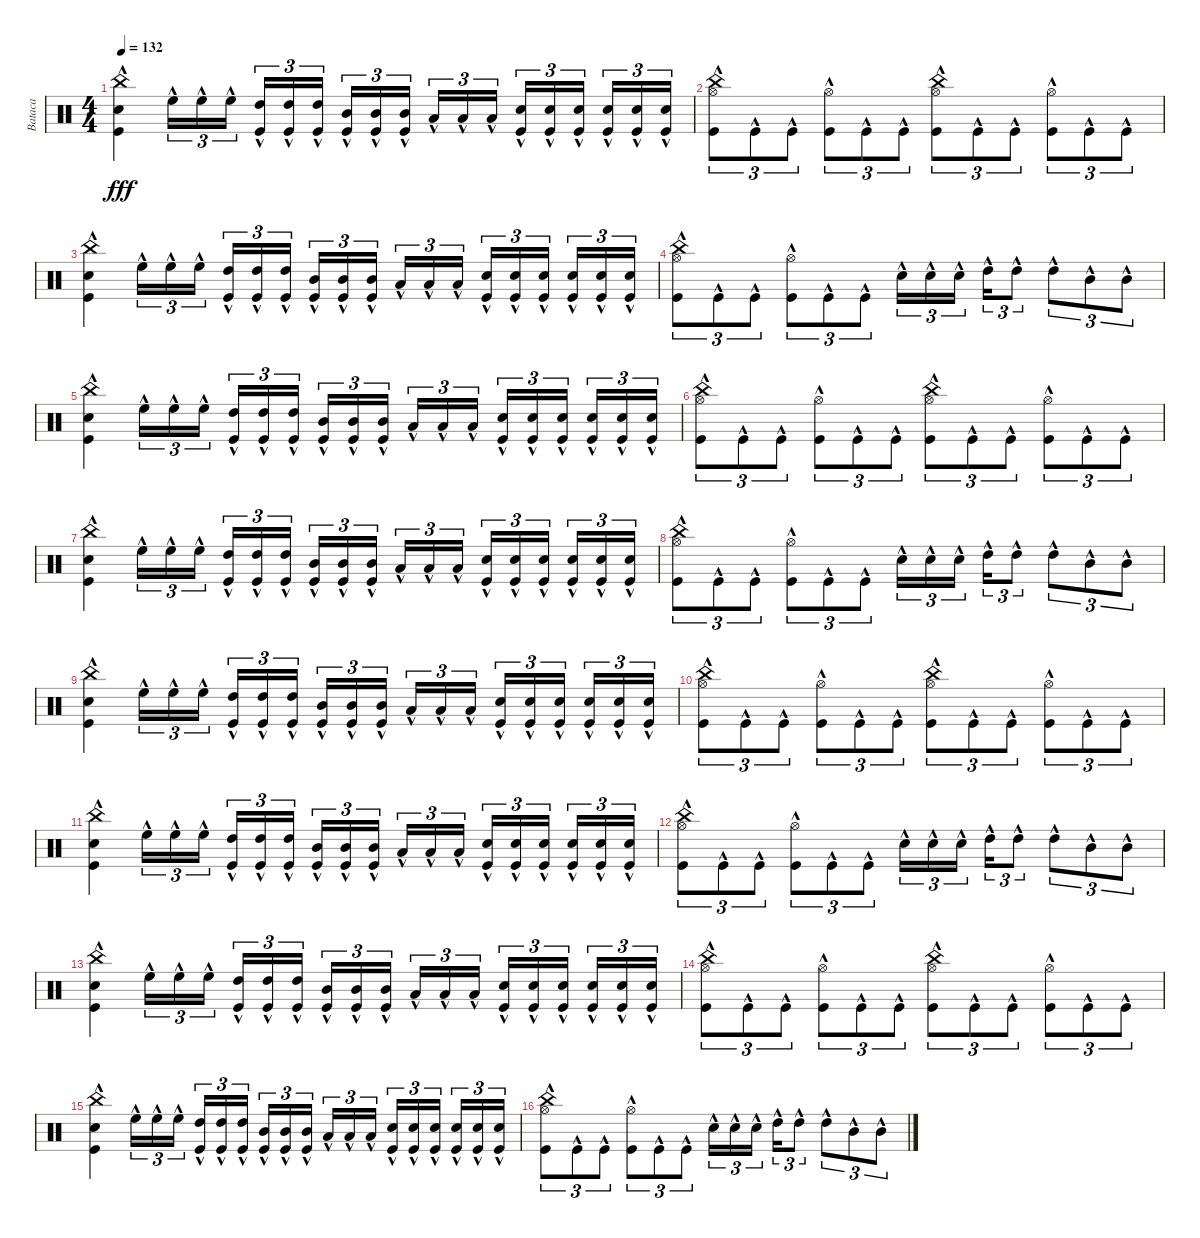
\track ("Bataca" "Bataca") {instrument percussion}
\staff {score}
\articulation defaults
\ts (4 4)
\tempo 132
\clef neutral
\ks c
("China (hit)"{hac} "Electric Snare (hit)"{hac} "Kick (hit)"{hac}).4{dy fff} "High Floor Tom (hit)"{hac}.16{tu (3 2)} "High Floor Tom (hit)"{hac}.16{tu (3 2)} "High Floor Tom (hit)"{hac}.16{tu (3 2) beam splitsecondary} ("High Tom (hit)"{hac} "Kick (hit)"{hac}).16{tu (3 2)} ("High Tom (hit)"{hac} "Kick (hit)"{hac}).16{tu (3 2)} ("High Tom (hit)"{hac} "Kick (hit)"{hac}).16{tu (3 2)} ("Mid Tom (hit)"{hac} "Kick (hit)"{hac}).16{tu (3 2)} ("Mid Tom (hit)"{hac} "Kick (hit)"{hac}).16{tu (3 2)} ("Mid Tom (hit)"{hac} "Kick (hit)"{hac}).16{tu (3 2) beam splitsecondary} "Low Tom (hit)"{hac}.16{tu (3 2)} "Low Tom (hit)"{hac}.16{tu (3 2)} "Low Tom (hit)"{hac}.16{tu (3 2)} ("Electric Snare (hit)"{hac} "Kick (hit)"{hac}).16{tu (3 2)} ("Electric Snare (hit)"{hac} "Kick (hit)"{hac}).16{tu (3 2)} ("Electric Snare (hit)"{hac} "Kick (hit)"{hac}).16{tu (3 2) beam splitsecondary} ("Electric Snare (hit)"{hac} "Kick (hit)"{hac}).16{tu (3 2)} ("Electric Snare (hit)"{hac} "Kick (hit)"{hac}).16{tu (3 2)} ("Electric Snare (hit)"{hac} "Kick (hit)"{hac}).16{tu (3 2)} |
("China (hit)"{hac} "Hi-Hat (open)"{hac} "Kick (hit)"{hac}).8{tu (3 2) volume 9} "Kick (hit)"{hac}.8{tu (3 2)} "Kick (hit)"{hac}.8{tu (3 2)} ("Hi-Hat (open)"{hac} "Kick (hit)"{hac}).8{tu (3 2)} "Kick (hit)"{hac}.8{tu (3 2)} "Kick (hit)"{hac}.8{tu (3 2)} ("China (hit)"{hac} "Hi-Hat (open)"{hac} "Kick (hit)"{hac}).8{tu (3 2)} "Kick (hit)"{hac}.8{tu (3 2)} "Kick (hit)"{hac}.8{tu (3 2)} ("Hi-Hat (open)"{hac} "Kick (hit)"{hac}).8{tu (3 2)} "Kick (hit)"{hac}.8{tu (3 2)} "Kick (hit)"{hac}.8{tu (3 2)} |
("China (hit)"{hac} "Electric Snare (hit)"{hac} "Kick (hit)"{hac}).4 "High Floor Tom (hit)"{hac}.16{tu (3 2)} "High Floor Tom (hit)"{hac}.16{tu (3 2)} "High Floor Tom (hit)"{hac}.16{tu (3 2) beam splitsecondary} ("High Tom (hit)"{hac} "Kick (hit)"{hac}).16{tu (3 2)} ("High Tom (hit)"{hac} "Kick (hit)"{hac}).16{tu (3 2)} ("High Tom (hit)"{hac} "Kick (hit)"{hac}).16{tu (3 2)} ("Mid Tom (hit)"{hac} "Kick (hit)"{hac}).16{tu (3 2)} ("Mid Tom (hit)"{hac} "Kick (hit)"{hac}).16{tu (3 2)} ("Mid Tom (hit)"{hac} "Kick (hit)"{hac}).16{tu (3 2) beam splitsecondary} "Low Tom (hit)"{hac}.16{tu (3 2)} "Low Tom (hit)"{hac}.16{tu (3 2)} "Low Tom (hit)"{hac}.16{tu (3 2)} ("Electric Snare (hit)"{hac} "Kick (hit)"{hac}).16{tu (3 2)} ("Electric Snare (hit)"{hac} "Kick (hit)"{hac}).16{tu (3 2)} ("Electric Snare (hit)"{hac} "Kick (hit)"{hac}).16{tu (3 2) beam splitsecondary} ("Electric Snare (hit)"{hac} "Kick (hit)"{hac}).16{tu (3 2)} ("Electric Snare (hit)"{hac} "Kick (hit)"{hac}).16{tu (3 2)} ("Electric Snare (hit)"{hac} "Kick (hit)"{hac}).16{tu (3 2)} |
("China (hit)"{hac} "Hi-Hat (open)"{hac} "Kick (hit)"{hac}).8{tu (3 2)} "Kick (hit)"{hac}.8{tu (3 2)} "Kick (hit)"{hac}.8{tu (3 2)} ("Hi-Hat (open)"{hac} "Kick (hit)"{hac}).8{tu (3 2)} "Kick (hit)"{hac}.8{tu (3 2)} "Kick (hit)"{hac}.8{tu (3 2)} "Electric Snare (hit)"{hac}.16{tu (3 2)} "Electric Snare (hit)"{hac}.16{tu (3 2)} "Electric Snare (hit)"{hac}.16{tu (3 2) beam splitsecondary} "High Tom (hit)"{hac}.16{tu (3 2)} "High Tom (hit)"{hac}.8{tu (3 2)} "High Tom (hit)"{hac}.8{tu (3 2)} "Mid Tom (hit)"{hac}.8{tu (3 2)} "Mid Tom (hit)"{hac}.8{tu (3 2)} |
("China (hit)"{hac} "Electric Snare (hit)"{hac} "Kick (hit)"{hac}).4{volume 7} "High Floor Tom (hit)"{hac}.16{tu (3 2)} "High Floor Tom (hit)"{hac}.16{tu (3 2)} "High Floor Tom (hit)"{hac}.16{tu (3 2) beam splitsecondary} ("High Tom (hit)"{hac} "Kick (hit)"{hac}).16{tu (3 2)} ("High Tom (hit)"{hac} "Kick (hit)"{hac}).16{tu (3 2)} ("High Tom (hit)"{hac} "Kick (hit)"{hac}).16{tu (3 2)} ("Mid Tom (hit)"{hac} "Kick (hit)"{hac}).16{tu (3 2)} ("Mid Tom (hit)"{hac} "Kick (hit)"{hac}).16{tu (3 2)} ("Mid Tom (hit)"{hac} "Kick (hit)"{hac}).16{tu (3 2) beam splitsecondary} "Low Tom (hit)"{hac}.16{tu (3 2)} "Low Tom (hit)"{hac}.16{tu (3 2)} "Low Tom (hit)"{hac}.16{tu (3 2)} ("Electric Snare (hit)"{hac} "Kick (hit)"{hac}).16{tu (3 2)} ("Electric Snare (hit)"{hac} "Kick (hit)"{hac}).16{tu (3 2)} ("Electric Snare (hit)"{hac} "Kick (hit)"{hac}).16{tu (3 2) beam splitsecondary} ("Electric Snare (hit)"{hac} "Kick (hit)"{hac}).16{tu (3 2)} ("Electric Snare (hit)"{hac} "Kick (hit)"{hac}).16{tu (3 2)} ("Electric Snare (hit)"{hac} "Kick (hit)"{hac}).16{tu (3 2)} |
("China (hit)"{hac} "Hi-Hat (open)"{hac} "Kick (hit)"{hac}).8{tu (3 2)} "Kick (hit)"{hac}.8{tu (3 2)} "Kick (hit)"{hac}.8{tu (3 2)} ("Hi-Hat (open)"{hac} "Kick (hit)"{hac}).8{tu (3 2)} "Kick (hit)"{hac}.8{tu (3 2)} "Kick (hit)"{hac}.8{tu (3 2)} ("China (hit)"{hac} "Hi-Hat (open)"{hac} "Kick (hit)"{hac}).8{tu (3 2)} "Kick (hit)"{hac}.8{tu (3 2)} "Kick (hit)"{hac}.8{tu (3 2)} ("Hi-Hat (open)"{hac} "Kick (hit)"{hac}).8{tu (3 2)} "Kick (hit)"{hac}.8{tu (3 2)} "Kick (hit)"{hac}.8{tu (3 2)} |
("China (hit)"{hac} "Electric Snare (hit)"{hac} "Kick (hit)"{hac}).4{volume 5} "High Floor Tom (hit)"{hac}.16{tu (3 2)} "High Floor Tom (hit)"{hac}.16{tu (3 2)} "High Floor Tom (hit)"{hac}.16{tu (3 2) beam splitsecondary} ("High Tom (hit)"{hac} "Kick (hit)"{hac}).16{tu (3 2)} ("High Tom (hit)"{hac} "Kick (hit)"{hac}).16{tu (3 2)} ("High Tom (hit)"{hac} "Kick (hit)"{hac}).16{tu (3 2)} ("Mid Tom (hit)"{hac} "Kick (hit)"{hac}).16{tu (3 2)} ("Mid Tom (hit)"{hac} "Kick (hit)"{hac}).16{tu (3 2)} ("Mid Tom (hit)"{hac} "Kick (hit)"{hac}).16{tu (3 2) beam splitsecondary} "Low Tom (hit)"{hac}.16{tu (3 2)} "Low Tom (hit)"{hac}.16{tu (3 2)} "Low Tom (hit)"{hac}.16{tu (3 2)} ("Electric Snare (hit)"{hac} "Kick (hit)"{hac}).16{tu (3 2)} ("Electric Snare (hit)"{hac} "Kick (hit)"{hac}).16{tu (3 2)} ("Electric Snare (hit)"{hac} "Kick (hit)"{hac}).16{tu (3 2) beam splitsecondary} ("Electric Snare (hit)"{hac} "Kick (hit)"{hac}).16{tu (3 2)} ("Electric Snare (hit)"{hac} "Kick (hit)"{hac}).16{tu (3 2)} ("Electric Snare (hit)"{hac} "Kick (hit)"{hac}).16{tu (3 2)} |
("China (hit)"{hac} "Hi-Hat (open)"{hac} "Kick (hit)"{hac}).8{tu (3 2)} "Kick (hit)"{hac}.8{tu (3 2)} "Kick (hit)"{hac}.8{tu (3 2)} ("Hi-Hat (open)"{hac} "Kick (hit)"{hac}).8{tu (3 2)} "Kick (hit)"{hac}.8{tu (3 2)} "Kick (hit)"{hac}.8{tu (3 2)} "Electric Snare (hit)"{hac}.16{tu (3 2)} "Electric Snare (hit)"{hac}.16{tu (3 2)} "Electric Snare (hit)"{hac}.16{tu (3 2) beam splitsecondary} "High Tom (hit)"{hac}.16{tu (3 2)} "High Tom (hit)"{hac}.8{tu (3 2)} "High Tom (hit)"{hac}.8{tu (3 2)} "Mid Tom (hit)"{hac}.8{tu (3 2)} "Mid Tom (hit)"{hac}.8{tu (3 2)} |
("China (hit)"{hac} "Electric Snare (hit)"{hac} "Kick (hit)"{hac}).4{volume 3} "High Floor Tom (hit)"{hac}.16{tu (3 2)} "High Floor Tom (hit)"{hac}.16{tu (3 2)} "High Floor Tom (hit)"{hac}.16{tu (3 2) beam splitsecondary} ("High Tom (hit)"{hac} "Kick (hit)"{hac}).16{tu (3 2)} ("High Tom (hit)"{hac} "Kick (hit)"{hac}).16{tu (3 2)} ("High Tom (hit)"{hac} "Kick (hit)"{hac}).16{tu (3 2)} ("Mid Tom (hit)"{hac} "Kick (hit)"{hac}).16{tu (3 2)} ("Mid Tom (hit)"{hac} "Kick (hit)"{hac}).16{tu (3 2)} ("Mid Tom (hit)"{hac} "Kick (hit)"{hac}).16{tu (3 2) beam splitsecondary} "Low Tom (hit)"{hac}.16{tu (3 2)} "Low Tom (hit)"{hac}.16{tu (3 2)} "Low Tom (hit)"{hac}.16{tu (3 2)} ("Electric Snare (hit)"{hac} "Kick (hit)"{hac}).16{tu (3 2)} ("Electric Snare (hit)"{hac} "Kick (hit)"{hac}).16{tu (3 2)} ("Electric Snare (hit)"{hac} "Kick (hit)"{hac}).16{tu (3 2) beam splitsecondary} ("Electric Snare (hit)"{hac} "Kick (hit)"{hac}).16{tu (3 2)} ("Electric Snare (hit)"{hac} "Kick (hit)"{hac}).16{tu (3 2)} ("Electric Snare (hit)"{hac} "Kick (hit)"{hac}).16{tu (3 2)} |
("China (hit)"{hac} "Hi-Hat (open)"{hac} "Kick (hit)"{hac}).8{tu (3 2)} "Kick (hit)"{hac}.8{tu (3 2)} "Kick (hit)"{hac}.8{tu (3 2)} ("Hi-Hat (open)"{hac} "Kick (hit)"{hac}).8{tu (3 2)} "Kick (hit)"{hac}.8{tu (3 2)} "Kick (hit)"{hac}.8{tu (3 2)} ("China (hit)"{hac} "Hi-Hat (open)"{hac} "Kick (hit)"{hac}).8{tu (3 2)} "Kick (hit)"{hac}.8{tu (3 2)} "Kick (hit)"{hac}.8{tu (3 2)} ("Hi-Hat (open)"{hac} "Kick (hit)"{hac}).8{tu (3 2)} "Kick (hit)"{hac}.8{tu (3 2)} "Kick (hit)"{hac}.8{tu (3 2)} |
("China (hit)"{hac} "Electric Snare (hit)"{hac} "Kick (hit)"{hac}).4{volume 0} "High Floor Tom (hit)"{hac}.16{tu (3 2)} "High Floor Tom (hit)"{hac}.16{tu (3 2)} "High Floor Tom (hit)"{hac}.16{tu (3 2) beam splitsecondary} ("High Tom (hit)"{hac} "Kick (hit)"{hac}).16{tu (3 2)} ("High Tom (hit)"{hac} "Kick (hit)"{hac}).16{tu (3 2)} ("High Tom (hit)"{hac} "Kick (hit)"{hac}).16{tu (3 2)} ("Mid Tom (hit)"{hac} "Kick (hit)"{hac}).16{tu (3 2)} ("Mid Tom (hit)"{hac} "Kick (hit)"{hac}).16{tu (3 2)} ("Mid Tom (hit)"{hac} "Kick (hit)"{hac}).16{tu (3 2) beam splitsecondary} "Low Tom (hit)"{hac}.16{tu (3 2)} "Low Tom (hit)"{hac}.16{tu (3 2)} "Low Tom (hit)"{hac}.16{tu (3 2)} ("Electric Snare (hit)"{hac} "Kick (hit)"{hac}).16{tu (3 2)} ("Electric Snare (hit)"{hac} "Kick (hit)"{hac}).16{tu (3 2)} ("Electric Snare (hit)"{hac} "Kick (hit)"{hac}).16{tu (3 2) beam splitsecondary} ("Electric Snare (hit)"{hac} "Kick (hit)"{hac}).16{tu (3 2)} ("Electric Snare (hit)"{hac} "Kick (hit)"{hac}).16{tu (3 2)} ("Electric Snare (hit)"{hac} "Kick (hit)"{hac}).16{tu (3 2)} |
("China (hit)"{hac} "Hi-Hat (open)"{hac} "Kick (hit)"{hac}).8{tu (3 2)} "Kick (hit)"{hac}.8{tu (3 2)} "Kick (hit)"{hac}.8{tu (3 2)} ("Hi-Hat (open)"{hac} "Kick (hit)"{hac}).8{tu (3 2)} "Kick (hit)"{hac}.8{tu (3 2)} "Kick (hit)"{hac}.8{tu (3 2)} "Electric Snare (hit)"{hac}.16{tu (3 2)} "Electric Snare (hit)"{hac}.16{tu (3 2)} "Electric Snare (hit)"{hac}.16{tu (3 2) beam splitsecondary} "High Tom (hit)"{hac}.16{tu (3 2)} "High Tom (hit)"{hac}.8{tu (3 2)} "High Tom (hit)"{hac}.8{tu (3 2)} "Mid Tom (hit)"{hac}.8{tu (3 2)} "Mid Tom (hit)"{hac}.8{tu (3 2)} |
("China (hit)"{hac} "Electric Snare (hit)"{hac} "Kick (hit)"{hac}).4 "High Floor Tom (hit)"{hac}.16{tu (3 2)} "High Floor Tom (hit)"{hac}.16{tu (3 2)} "High Floor Tom (hit)"{hac}.16{tu (3 2) beam splitsecondary} ("High Tom (hit)"{hac} "Kick (hit)"{hac}).16{tu (3 2)} ("High Tom (hit)"{hac} "Kick (hit)"{hac}).16{tu (3 2)} ("High Tom (hit)"{hac} "Kick (hit)"{hac}).16{tu (3 2)} ("Mid Tom (hit)"{hac} "Kick (hit)"{hac}).16{tu (3 2)} ("Mid Tom (hit)"{hac} "Kick (hit)"{hac}).16{tu (3 2)} ("Mid Tom (hit)"{hac} "Kick (hit)"{hac}).16{tu (3 2) beam splitsecondary} "Low Tom (hit)"{hac}.16{tu (3 2)} "Low Tom (hit)"{hac}.16{tu (3 2)} "Low Tom (hit)"{hac}.16{tu (3 2)} ("Electric Snare (hit)"{hac} "Kick (hit)"{hac}).16{tu (3 2)} ("Electric Snare (hit)"{hac} "Kick (hit)"{hac}).16{tu (3 2)} ("Electric Snare (hit)"{hac} "Kick (hit)"{hac}).16{tu (3 2) beam splitsecondary} ("Electric Snare (hit)"{hac} "Kick (hit)"{hac}).16{tu (3 2)} ("Electric Snare (hit)"{hac} "Kick (hit)"{hac}).16{tu (3 2)} ("Electric Snare (hit)"{hac} "Kick (hit)"{hac}).16{tu (3 2)} |
("China (hit)"{hac} "Hi-Hat (open)"{hac} "Kick (hit)"{hac}).8{tu (3 2)} "Kick (hit)"{hac}.8{tu (3 2)} "Kick (hit)"{hac}.8{tu (3 2)} ("Hi-Hat (open)"{hac} "Kick (hit)"{hac}).8{tu (3 2)} "Kick (hit)"{hac}.8{tu (3 2)} "Kick (hit)"{hac}.8{tu (3 2)} ("China (hit)"{hac} "Hi-Hat (open)"{hac} "Kick (hit)"{hac}).8{tu (3 2)} "Kick (hit)"{hac}.8{tu (3 2)} "Kick (hit)"{hac}.8{tu (3 2)} ("Hi-Hat (open)"{hac} "Kick (hit)"{hac}).8{tu (3 2)} "Kick (hit)"{hac}.8{tu (3 2)} "Kick (hit)"{hac}.8{tu (3 2)} |
("China (hit)"{hac} "Electric Snare (hit)"{hac} "Kick (hit)"{hac}).4 "High Floor Tom (hit)"{hac}.16{tu (3 2)} "High Floor Tom (hit)"{hac}.16{tu (3 2)} "High Floor Tom (hit)"{hac}.16{tu (3 2) beam splitsecondary} ("High Tom (hit)"{hac} "Kick (hit)"{hac}).16{tu (3 2)} ("High Tom (hit)"{hac} "Kick (hit)"{hac}).16{tu (3 2)} ("High Tom (hit)"{hac} "Kick (hit)"{hac}).16{tu (3 2)} ("Mid Tom (hit)"{hac} "Kick (hit)"{hac}).16{tu (3 2)} ("Mid Tom (hit)"{hac} "Kick (hit)"{hac}).16{tu (3 2)} ("Mid Tom (hit)"{hac} "Kick (hit)"{hac}).16{tu (3 2) beam splitsecondary} "Low Tom (hit)"{hac}.16{tu (3 2)} "Low Tom (hit)"{hac}.16{tu (3 2)} "Low Tom (hit)"{hac}.16{tu (3 2)} ("Electric Snare (hit)"{hac} "Kick (hit)"{hac}).16{tu (3 2)} ("Electric Snare (hit)"{hac} "Kick (hit)"{hac}).16{tu (3 2)} ("Electric Snare (hit)"{hac} "Kick (hit)"{hac}).16{tu (3 2) beam splitsecondary} ("Electric Snare (hit)"{hac} "Kick (hit)"{hac}).16{tu (3 2)} ("Electric Snare (hit)"{hac} "Kick (hit)"{hac}).16{tu (3 2)} ("Electric Snare (hit)"{hac} "Kick (hit)"{hac}).16{tu (3 2)} |
("China (hit)"{hac} "Hi-Hat (open)"{hac} "Kick (hit)"{hac}).8{tu (3 2)} "Kick (hit)"{hac}.8{tu (3 2)} "Kick (hit)"{hac}.8{tu (3 2)} ("Hi-Hat (open)"{hac} "Kick (hit)"{hac}).8{tu (3 2)} "Kick (hit)"{hac}.8{tu (3 2)} "Kick (hit)"{hac}.8{tu (3 2)} "Electric Snare (hit)"{hac}.16{tu (3 2)} "Electric Snare (hit)"{hac}.16{tu (3 2)} "Electric Snare (hit)"{hac}.16{tu (3 2) beam splitsecondary} "High Tom (hit)"{hac}.16{tu (3 2)} "High Tom (hit)"{hac}.8{tu (3 2)} "High Tom (hit)"{hac}.8{tu (3 2)} "Mid Tom (hit)"{hac}.8{tu (3 2)} "Mid Tom (hit)"{hac}.8{tu (3 2)}
